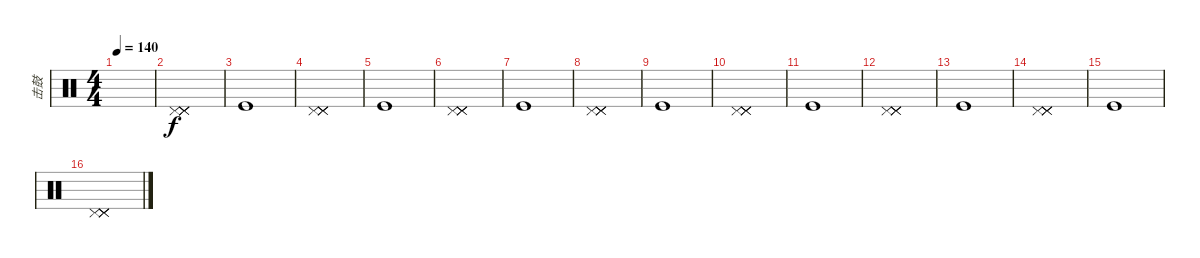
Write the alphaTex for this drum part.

\track ("击鼓" "击鼓") {instrument percussion}
\staff {score}
\articulation defaults
\ts (4 4)
\tempo 140
\clef neutral
\ks c
|
("Pedal Hi-Hat (hit)" "Pedal Hi-Hat (hit)" "Pedal Hi-Hat (hit)" "Pedal Hi-Hat (hit)").1 |
"Kick (hit)".1 |
("Pedal Hi-Hat (hit)" "Pedal Hi-Hat (hit)" "Pedal Hi-Hat (hit)" "Pedal Hi-Hat (hit)").1 |
"Kick (hit)".1 |
("Pedal Hi-Hat (hit)" "Pedal Hi-Hat (hit)" "Pedal Hi-Hat (hit)" "Pedal Hi-Hat (hit)").1 |
"Kick (hit)".1 |
("Pedal Hi-Hat (hit)" "Pedal Hi-Hat (hit)" "Pedal Hi-Hat (hit)" "Pedal Hi-Hat (hit)").1 |
"Kick (hit)".1 |
("Pedal Hi-Hat (hit)" "Pedal Hi-Hat (hit)" "Pedal Hi-Hat (hit)" "Pedal Hi-Hat (hit)").1 |
"Kick (hit)".1 |
("Pedal Hi-Hat (hit)" "Pedal Hi-Hat (hit)" "Pedal Hi-Hat (hit)" "Pedal Hi-Hat (hit)").1 |
"Kick (hit)".1 |
("Pedal Hi-Hat (hit)" "Pedal Hi-Hat (hit)" "Pedal Hi-Hat (hit)" "Pedal Hi-Hat (hit)").1 |
"Kick (hit)".1 |
("Pedal Hi-Hat (hit)" "Pedal Hi-Hat (hit)" "Pedal Hi-Hat (hit)" "Pedal Hi-Hat (hit)").1
